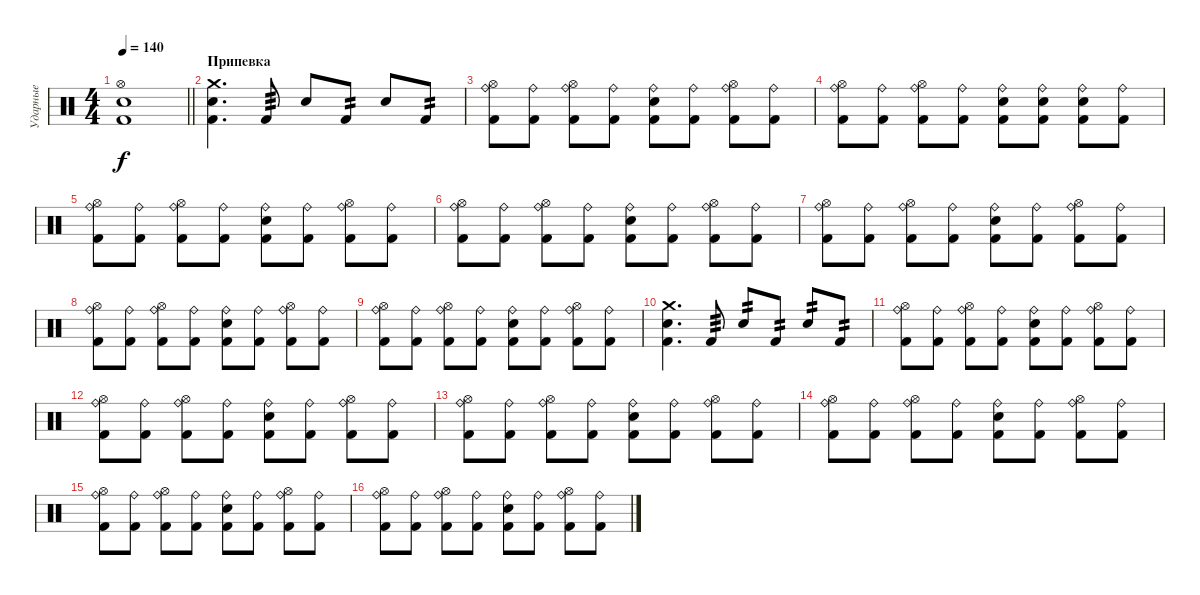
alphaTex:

\track ("Ударные" "Ударные") {instrument percussion}
\staff {score}
\articulation defaults
\ts (4 4)
\tempo 140
\clef neutral
\barLineRight lightlight
\ks c
("Kick (hit) 2" "Snare (hit) 2" "Hi-Hat (open)").1{dy f} |
\section ("" "Припевка")
("Kick (hit) 2" "Snare (hit) 2" "Crash medium (hit)").4{d} "Kick (hit) 2".8{tp 3} "Snare (hit) 2".8 "Kick (hit) 2".8{tp 2} "Snare (hit) 2".8 "Kick (hit) 2".8{tp 2} |
("Kick (hit) 2" "Ride (bell)" "Hi-Hat (open)").8 ("Kick (hit) 2" "Ride (bell)").8 ("Kick (hit) 2" "Ride (bell)" "Hi-Hat (open)").8 ("Kick (hit) 2" "Ride (bell)").8 ("Kick (hit) 2" "Ride (bell)" "Snare (hit) 2").8 ("Kick (hit) 2" "Ride (bell)").8 ("Kick (hit) 2" "Ride (bell)" "Hi-Hat (open)").8 ("Kick (hit) 2" "Ride (bell)").8 |
("Kick (hit) 2" "Ride (bell)" "Hi-Hat (open)").8 ("Kick (hit) 2" "Ride (bell)").8 ("Kick (hit) 2" "Ride (bell)" "Hi-Hat (open)").8 ("Kick (hit) 2" "Ride (bell)").8 ("Kick (hit) 2" "Ride (bell)" "Snare (hit) 2").8 ("Kick (hit) 2" "Ride (bell)" "Snare (hit) 2").8 ("Kick (hit) 2" "Ride (bell)" "Snare (hit) 2").8 ("Kick (hit) 2" "Ride (bell)").8 |
("Kick (hit) 2" "Ride (bell)" "Hi-Hat (open)").8 ("Kick (hit) 2" "Ride (bell)").8 ("Kick (hit) 2" "Ride (bell)" "Hi-Hat (open)").8 ("Kick (hit) 2" "Ride (bell)").8 ("Kick (hit) 2" "Ride (bell)" "Snare (hit) 2").8 ("Kick (hit) 2" "Ride (bell)").8 ("Kick (hit) 2" "Ride (bell)" "Hi-Hat (open)").8 ("Kick (hit) 2" "Ride (bell)").8 |
("Kick (hit) 2" "Ride (bell)" "Hi-Hat (open)").8 ("Kick (hit) 2" "Ride (bell)").8 ("Kick (hit) 2" "Ride (bell)" "Hi-Hat (open)").8 ("Kick (hit) 2" "Ride (bell)").8 ("Kick (hit) 2" "Ride (bell)" "Snare (hit) 2").8 ("Kick (hit) 2" "Ride (bell)").8 ("Kick (hit) 2" "Ride (bell)" "Hi-Hat (open)").8 ("Kick (hit) 2" "Ride (bell)").8 |
("Kick (hit) 2" "Ride (bell)" "Hi-Hat (open)").8 ("Kick (hit) 2" "Ride (bell)").8 ("Kick (hit) 2" "Ride (bell)" "Hi-Hat (open)").8 ("Kick (hit) 2" "Ride (bell)").8 ("Kick (hit) 2" "Ride (bell)" "Snare (hit) 2").8 ("Kick (hit) 2" "Ride (bell)").8 ("Kick (hit) 2" "Ride (bell)" "Hi-Hat (open)").8 ("Kick (hit) 2" "Ride (bell)").8 |
("Kick (hit) 2" "Ride (bell)" "Hi-Hat (open)").8 ("Kick (hit) 2" "Ride (bell)").8 ("Kick (hit) 2" "Ride (bell)" "Hi-Hat (open)").8 ("Kick (hit) 2" "Ride (bell)").8 ("Kick (hit) 2" "Ride (bell)" "Snare (hit) 2").8 ("Kick (hit) 2" "Ride (bell)").8 ("Kick (hit) 2" "Ride (bell)" "Hi-Hat (open)").8 ("Kick (hit) 2" "Ride (bell)").8 |
("Kick (hit) 2" "Ride (bell)" "Hi-Hat (open)").8 ("Kick (hit) 2" "Ride (bell)").8 ("Kick (hit) 2" "Ride (bell)" "Hi-Hat (open)").8 ("Kick (hit) 2" "Ride (bell)").8 ("Kick (hit) 2" "Ride (bell)" "Snare (hit) 2").8 ("Kick (hit) 2" "Ride (bell)").8 ("Kick (hit) 2" "Ride (bell)" "Hi-Hat (open)").8 ("Kick (hit) 2" "Ride (bell)").8 |
("Kick (hit) 2" "Snare (hit) 2" "Crash medium (hit)").4{d} "Kick (hit) 2".8{tp 3} "Snare (hit) 2".8{tp 2} "Kick (hit) 2".8{tp 2} "Snare (hit) 2".8{tp 2} "Kick (hit) 2".8{tp 2} |
("Kick (hit) 2" "Ride (bell)" "Hi-Hat (open)").8 ("Kick (hit) 2" "Ride (bell)").8 ("Kick (hit) 2" "Ride (bell)" "Hi-Hat (open)").8 ("Kick (hit) 2" "Ride (bell)").8 ("Kick (hit) 2" "Ride (bell)" "Snare (hit) 2").8 ("Kick (hit) 2" "Ride (bell)").8 ("Kick (hit) 2" "Ride (bell)" "Hi-Hat (open)").8 ("Kick (hit) 2" "Ride (bell)").8 |
("Kick (hit) 2" "Ride (bell)" "Hi-Hat (open)").8 ("Kick (hit) 2" "Ride (bell)").8 ("Kick (hit) 2" "Ride (bell)" "Hi-Hat (open)").8 ("Kick (hit) 2" "Ride (bell)").8 ("Kick (hit) 2" "Ride (bell)" "Snare (hit) 2").8 ("Kick (hit) 2" "Ride (bell)").8 ("Kick (hit) 2" "Ride (bell)" "Hi-Hat (open)").8 ("Kick (hit) 2" "Ride (bell)").8 |
("Kick (hit) 2" "Ride (bell)" "Hi-Hat (open)").8 ("Kick (hit) 2" "Ride (bell)").8 ("Kick (hit) 2" "Ride (bell)" "Hi-Hat (open)").8 ("Kick (hit) 2" "Ride (bell)").8 ("Kick (hit) 2" "Ride (bell)" "Snare (hit) 2").8 ("Kick (hit) 2" "Ride (bell)").8 ("Kick (hit) 2" "Ride (bell)" "Hi-Hat (open)").8 ("Kick (hit) 2" "Ride (bell)").8 |
("Kick (hit) 2" "Ride (bell)" "Hi-Hat (open)").8 ("Kick (hit) 2" "Ride (bell)").8 ("Kick (hit) 2" "Ride (bell)" "Hi-Hat (open)").8 ("Kick (hit) 2" "Ride (bell)").8 ("Kick (hit) 2" "Ride (bell)" "Snare (hit) 2").8 ("Kick (hit) 2" "Ride (bell)").8 ("Kick (hit) 2" "Ride (bell)" "Hi-Hat (open)").8 ("Kick (hit) 2" "Ride (bell)").8 |
("Kick (hit) 2" "Ride (bell)" "Hi-Hat (open)").8 ("Kick (hit) 2" "Ride (bell)").8 ("Kick (hit) 2" "Ride (bell)" "Hi-Hat (open)").8 ("Kick (hit) 2" "Ride (bell)").8 ("Kick (hit) 2" "Ride (bell)" "Snare (hit) 2").8 ("Kick (hit) 2" "Ride (bell)").8 ("Kick (hit) 2" "Ride (bell)" "Hi-Hat (open)").8 ("Kick (hit) 2" "Ride (bell)").8 |
("Kick (hit) 2" "Ride (bell)" "Hi-Hat (open)").8 ("Kick (hit) 2" "Ride (bell)").8 ("Kick (hit) 2" "Ride (bell)" "Hi-Hat (open)").8 ("Kick (hit) 2" "Ride (bell)").8 ("Kick (hit) 2" "Ride (bell)" "Snare (hit) 2").8 ("Kick (hit) 2" "Ride (bell)").8 ("Kick (hit) 2" "Ride (bell)" "Hi-Hat (open)").8 ("Kick (hit) 2" "Ride (bell)").8
